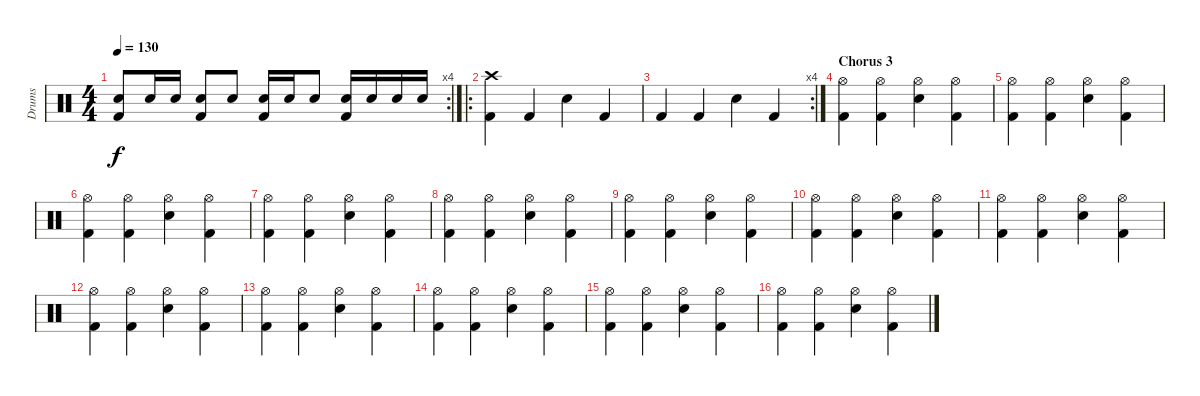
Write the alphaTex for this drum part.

\track ("Drums" "Drums") {instrument percussion}
\staff {score}
\articulation defaults
\rc 4
\ts (4 4)
\tempo 130
\clef neutral
\ks c
("Electric Snare (hit)" "Kick (hit) 2").8{dy f} "Electric Snare (hit)".16 "Electric Snare (hit)".16 ("Electric Snare (hit)" "Kick (hit) 2").8 "Electric Snare (hit)".8 ("Electric Snare (hit)" "Kick (hit) 2").16 "Electric Snare (hit)".16 "Electric Snare (hit)".8 ("Electric Snare (hit)" "Kick (hit) 2").16 "Electric Snare (hit)".16 "Electric Snare (hit)".16 "Electric Snare (hit)".16 |
\ro
("Kick (hit) 2" "Crash high (hit)").4 "Kick (hit) 2".4 "Electric Snare (hit)".4 "Kick (hit) 2".4 |
\rc 4 "Kick (hit) 2".4 "Kick (hit) 2".4 "Electric Snare (hit)".4 "Kick (hit) 2".4
|
\section ("" "Chorus 3")
("Kick (hit) 2" "Hi-Hat (open)").4 ("Kick (hit) 2" "Hi-Hat (open)").4 ("Electric Snare (hit)" "Hi-Hat (open)").4 ("Kick (hit) 2" "Hi-Hat (open)").4 |
("Kick (hit) 2" "Hi-Hat (open)").4 ("Kick (hit) 2" "Hi-Hat (open)").4 ("Electric Snare (hit)" "Hi-Hat (open)").4 ("Kick (hit) 2" "Hi-Hat (open)").4 |
("Kick (hit) 2" "Hi-Hat (open)").4 ("Kick (hit) 2" "Hi-Hat (open)").4 ("Electric Snare (hit)" "Hi-Hat (open)").4 ("Kick (hit) 2" "Hi-Hat (open)").4 |
("Kick (hit) 2" "Hi-Hat (open)").4 ("Kick (hit) 2" "Hi-Hat (open)").4 ("Electric Snare (hit)" "Hi-Hat (open)").4 ("Kick (hit) 2" "Hi-Hat (open)").4 |
("Kick (hit) 2" "Hi-Hat (open)").4 ("Kick (hit) 2" "Hi-Hat (open)").4 ("Electric Snare (hit)" "Hi-Hat (open)").4 ("Kick (hit) 2" "Hi-Hat (open)").4 |
("Kick (hit) 2" "Hi-Hat (open)").4 ("Kick (hit) 2" "Hi-Hat (open)").4 ("Electric Snare (hit)" "Hi-Hat (open)").4 ("Kick (hit) 2" "Hi-Hat (open)").4 |
("Kick (hit) 2" "Hi-Hat (open)").4 ("Kick (hit) 2" "Hi-Hat (open)").4 ("Electric Snare (hit)" "Hi-Hat (open)").4 ("Kick (hit) 2" "Hi-Hat (open)").4 |
("Kick (hit) 2" "Hi-Hat (open)").4 ("Kick (hit) 2" "Hi-Hat (open)").4 ("Electric Snare (hit)" "Hi-Hat (open)").4 ("Kick (hit) 2" "Hi-Hat (open)").4 |
("Kick (hit) 2" "Hi-Hat (open)").4 ("Kick (hit) 2" "Hi-Hat (open)").4 ("Electric Snare (hit)" "Hi-Hat (open)").4 ("Kick (hit) 2" "Hi-Hat (open)").4 |
("Kick (hit) 2" "Hi-Hat (open)").4 ("Kick (hit) 2" "Hi-Hat (open)").4 ("Electric Snare (hit)" "Hi-Hat (open)").4 ("Kick (hit) 2" "Hi-Hat (open)").4 |
("Kick (hit) 2" "Hi-Hat (open)").4 ("Kick (hit) 2" "Hi-Hat (open)").4 ("Electric Snare (hit)" "Hi-Hat (open)").4 ("Kick (hit) 2" "Hi-Hat (open)").4 |
("Kick (hit) 2" "Hi-Hat (open)").4 ("Kick (hit) 2" "Hi-Hat (open)").4 ("Electric Snare (hit)" "Hi-Hat (open)").4 ("Kick (hit) 2" "Hi-Hat (open)").4 |
("Kick (hit) 2" "Hi-Hat (open)").4 ("Kick (hit) 2" "Hi-Hat (open)").4 ("Electric Snare (hit)" "Hi-Hat (open)").4 ("Kick (hit) 2" "Hi-Hat (open)").4
